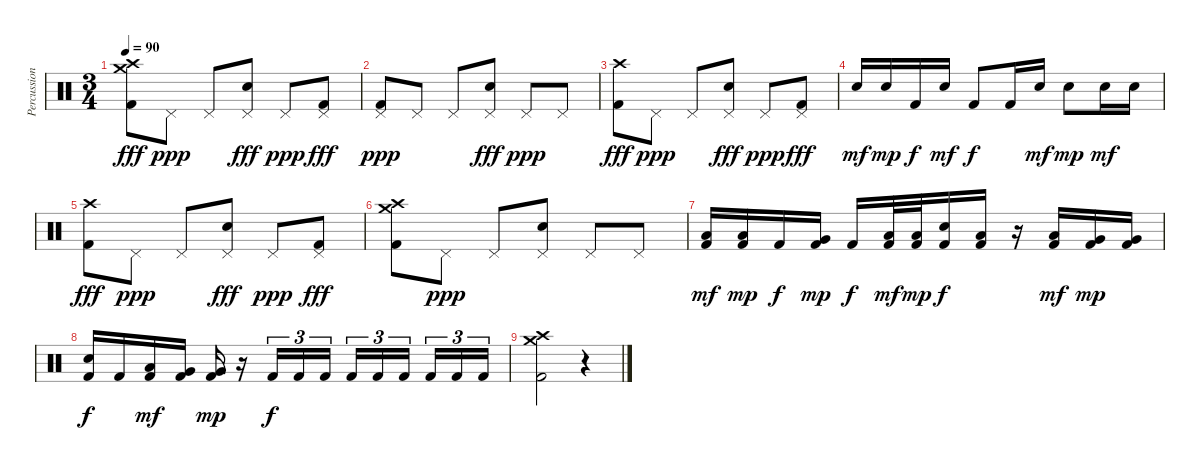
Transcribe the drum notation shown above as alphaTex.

\track ("Percussion" "Percussion") {instrument percussion}
\staff {score}
\articulation defaults
\ts (3 4)
\tempo 90
\clef neutral
\ks c
("Crash medium (hit)" "Crash high (hit)" "Kick (hit) 2").8{dy fff} "Pedal Hi-Hat (hit)".8{dy ppp} "Pedal Hi-Hat (hit)".8 ("Pedal Hi-Hat (hit)" "Snare (hit) 2").8{dy fff} "Pedal Hi-Hat (hit)".8{dy ppp} ("Pedal Hi-Hat (hit)" "Kick (hit) 2").8{dy fff} |
("Pedal Hi-Hat (hit)" "Kick (hit) 2").8{dy ppp} "Pedal Hi-Hat (hit)".8 "Pedal Hi-Hat (hit)".8 ("Pedal Hi-Hat (hit)" "Snare (hit) 2").8{dy fff} "Pedal Hi-Hat (hit)".8{dy ppp} "Pedal Hi-Hat (hit)".8 |
("Crash high (hit)" "Kick (hit) 2").8{dy fff} "Pedal Hi-Hat (hit)".8{dy ppp} "Pedal Hi-Hat (hit)".8 ("Pedal Hi-Hat (hit)" "Snare (hit) 2").8{dy fff} "Pedal Hi-Hat (hit)".8{dy ppp} ("Pedal Hi-Hat (hit)" "Kick (hit) 2").8{dy fff} |
"Snare (hit) 2".16{dy mf} "Snare (hit) 2".16{dy mp} "Kick (hit) 2".16{dy f} "Snare (hit) 2".16{dy mf} "Kick (hit) 2".8{dy f} "Kick (hit) 2".16 "Snare (hit) 2".16{dy mf} "Snare (hit) 2".8{dy mp} "Snare (hit) 2".16{dy mf} "Snare (hit) 2".16 |
("Crash high (hit)" "Kick (hit) 2").8{dy fff} "Pedal Hi-Hat (hit)".8{dy ppp} "Pedal Hi-Hat (hit)".8 ("Pedal Hi-Hat (hit)" "Snare (hit) 2").8{dy fff} "Pedal Hi-Hat (hit)".8{dy ppp} ("Pedal Hi-Hat (hit)" "Kick (hit) 2").8{dy fff} |
("Crash medium (hit)" "Crash high (hit)" "Kick (hit) 2").8 "Pedal Hi-Hat (hit)".8{dy ppp} "Pedal Hi-Hat (hit)".8 ("Pedal Hi-Hat (hit)" "Snare (hit) 2").8 "Pedal Hi-Hat (hit)".8 "Pedal Hi-Hat (hit)".8 |
("Low Tom (hit)" "Kick (hit) 2").16{dy mf} ("Low Tom (hit)" "Kick (hit) 2").16{dy mp} "Kick (hit) 2".16{dy f} ("Very Low Tom (hit)" "Kick (hit) 2").16{dy mp} "Kick (hit) 2".16{dy f} ("Low Tom (hit)" "Kick (hit) 2").32{dy mf} ("Low Tom (hit)" "Kick (hit) 2").32{dy mp} ("Snare (hit) 2" "Kick (hit) 2").16{dy f} ("Low Tom (hit)" "Kick (hit) 2").16 r.16 ("Low Tom (hit)" "Kick (hit) 2").16{dy mf} ("Very Low Tom (hit)" "Kick (hit) 2").16{dy mp} ("Very Low Tom (hit)" "Kick (hit) 2").16 |
("Snare (hit) 2" "Kick (hit) 2").16{dy f} "Kick (hit) 2".16 ("Low Tom (hit)" "Kick (hit) 2").16{dy mf} ("Very Low Tom (hit)" "Kick (hit) 2").16 ("Very Low Tom (hit)" "Kick (hit) 2").16{dy mp} r.16 "Kick (hit) 2".16{tu (3 2) dy f} "Kick (hit) 2".16{tu (3 2)} "Kick (hit) 2".16{tu (3 2)} "Kick (hit) 2".16{tu (3 2)} "Kick (hit) 2".16{tu (3 2)} "Kick (hit) 2".16{tu (3 2)} "Kick (hit) 2".16{tu (3 2)} "Kick (hit) 2".16{tu (3 2)} "Kick (hit) 2".16{tu (3 2)} |
("Crash medium (hit)" "Crash high (hit)" "Kick (hit) 2").2 r.4
